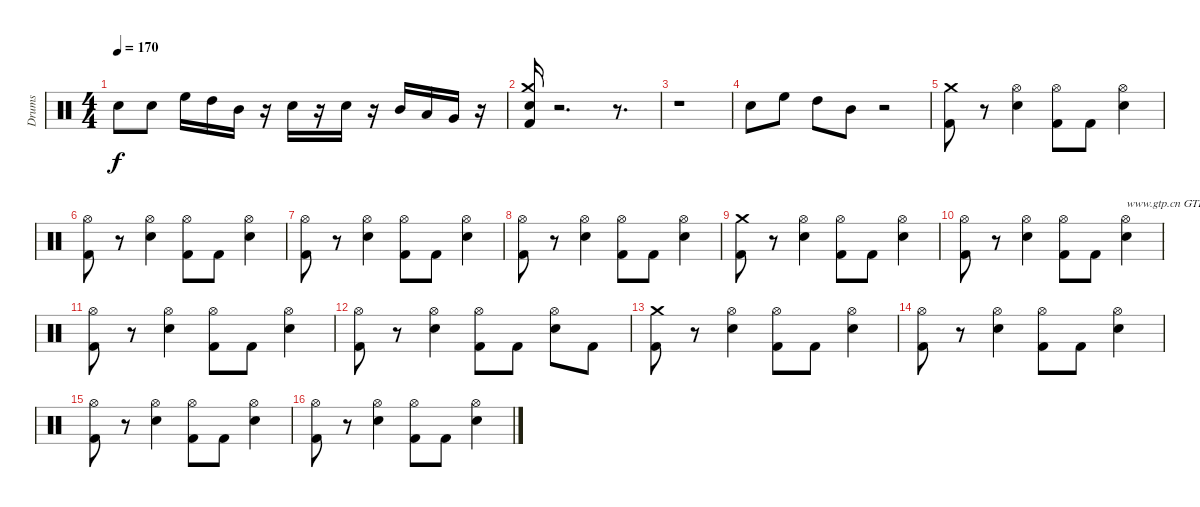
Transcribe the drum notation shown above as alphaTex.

\track ("Drums" "Drums") {instrument percussion}
\staff {score}
\articulation defaults
\ts (4 4)
\tempo 170
\clef neutral
\ks c "Electric Snare (hit)".8{dy f} "Electric Snare (hit)".8 "High Floor Tom (hit)".16 "High Tom (hit)".16 "Mid Tom (hit)".16
r.16 "Electric Snare (hit)".16 r.16 "Electric Snare (hit)".16 r.16 "Mid Tom (hit)".16 "Low Tom (hit)".16 "Very Low Tom (hit)".16 r.16 |
("Crash medium (hit)" "Kick (hit) 2" "Electric Snare (hit)").16 r.2{d} r.8{d} |
r.1 |
"Electric Snare (hit)".8 "High Floor Tom (hit)".8 "High Tom (hit)".8 "Mid Tom (hit)".8 r.2 |
("Kick (hit) 2" "Crash medium (hit)").8 r.8 ("Hi-Hat (open)" "Electric Snare (hit)").4 ("Hi-Hat (open)" "Kick (hit) 2").8 "Kick (hit) 2".8 ("Hi-Hat (open)" "Electric Snare (hit)").4 |
("Hi-Hat (open)" "Kick (hit) 2").8 r.8 ("Hi-Hat (open)" "Electric Snare (hit)").4 ("Hi-Hat (open)" "Kick (hit) 2").8 "Kick (hit) 2".8 ("Hi-Hat (open)" "Electric Snare (hit)").4 |
("Hi-Hat (open)" "Kick (hit) 2").8 r.8 ("Hi-Hat (open)" "Electric Snare (hit)").4 ("Hi-Hat (open)" "Kick (hit) 2").8 "Kick (hit) 2".8 ("Hi-Hat (open)" "Electric Snare (hit)").4 |
("Hi-Hat (open)" "Kick (hit) 2").8 r.8 ("Hi-Hat (open)" "Electric Snare (hit)").4 ("Hi-Hat (open)" "Kick (hit) 2").8 "Kick (hit) 2".8 ("Hi-Hat (open)" "Electric Snare (hit)").4 |
("Kick (hit) 2" "Crash medium (hit)").8 r.8 ("Hi-Hat (open)" "Electric Snare (hit)").4 ("Hi-Hat (open)" "Kick (hit) 2").8 "Kick (hit) 2".8 ("Hi-Hat (open)" "Electric Snare (hit)").4 |
("Hi-Hat (open)" "Kick (hit) 2").8 r.8 ("Hi-Hat (open)" "Electric Snare (hit)").4 ("Hi-Hat (open)" "Kick (hit) 2").8 "Kick (hit) 2".8 ("Hi-Hat (open)" "Electric Snare (hit)").4{txt "www.gtp.cn GTP中文网为您提供优秀的谱子"} |
("Hi-Hat (open)" "Kick (hit) 2").8 r.8 ("Hi-Hat (open)" "Electric Snare (hit)").4 ("Hi-Hat (open)" "Kick (hit) 2").8 "Kick (hit) 2".8 ("Hi-Hat (open)" "Electric Snare (hit)").4 |
("Hi-Hat (open)" "Kick (hit) 2").8 r.8 ("Hi-Hat (open)" "Electric Snare (hit)").4 ("Hi-Hat (open)" "Kick (hit) 2").8 "Kick (hit) 2".8 ("Hi-Hat (open)" "Electric Snare (hit)").8 "Kick (hit) 2".8 |
("Kick (hit) 2" "Crash medium (hit)").8 r.8 ("Hi-Hat (open)" "Electric Snare (hit)").4 ("Hi-Hat (open)" "Kick (hit) 2").8 "Kick (hit) 2".8 ("Hi-Hat (open)" "Electric Snare (hit)").4 |
("Hi-Hat (open)" "Kick (hit) 2").8 r.8 ("Hi-Hat (open)" "Electric Snare (hit)").4 ("Hi-Hat (open)" "Kick (hit) 2").8 "Kick (hit) 2".8 ("Hi-Hat (open)" "Electric Snare (hit)").4 |
("Hi-Hat (open)" "Kick (hit) 2").8 r.8 ("Hi-Hat (open)" "Electric Snare (hit)").4 ("Hi-Hat (open)" "Kick (hit) 2").8 "Kick (hit) 2".8 ("Hi-Hat (open)" "Electric Snare (hit)").4 |
("Hi-Hat (open)" "Kick (hit) 2").8 r.8 ("Hi-Hat (open)" "Electric Snare (hit)").4 ("Hi-Hat (open)" "Kick (hit) 2").8 "Kick (hit) 2".8 ("Hi-Hat (open)" "Electric Snare (hit)").4
